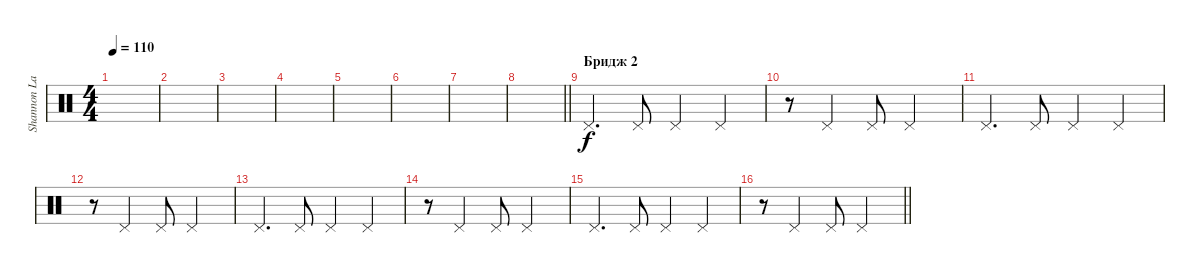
\track ("Shannon Larkin [Percussion 3]" "Shannon La") {instrument percussion}
\staff {score}
\articulation defaults
\ts (4 4)
\tempo 110
\clef neutral
\ks c
|
|
|
|
|
|
|
\barLineRight lightlight
|
\section ("" "Бридж 2")
"Pedal Hi-Hat (hit)".4{d} "Pedal Hi-Hat (hit)".8 "Pedal Hi-Hat (hit)".4 "Pedal Hi-Hat (hit)".4 |
r.8 "Pedal Hi-Hat (hit)".4 "Pedal Hi-Hat (hit)".8 "Pedal Hi-Hat (hit)".2 |
"Pedal Hi-Hat (hit)".4{d} "Pedal Hi-Hat (hit)".8 "Pedal Hi-Hat (hit)".4 "Pedal Hi-Hat (hit)".4 |
r.8 "Pedal Hi-Hat (hit)".4 "Pedal Hi-Hat (hit)".8 "Pedal Hi-Hat (hit)".2 |
"Pedal Hi-Hat (hit)".4{d} "Pedal Hi-Hat (hit)".8 "Pedal Hi-Hat (hit)".4 "Pedal Hi-Hat (hit)".4 |
r.8 "Pedal Hi-Hat (hit)".4 "Pedal Hi-Hat (hit)".8 "Pedal Hi-Hat (hit)".2 |
"Pedal Hi-Hat (hit)".4{d} "Pedal Hi-Hat (hit)".8 "Pedal Hi-Hat (hit)".4 "Pedal Hi-Hat (hit)".4 |
\barLineRight lightlight
r.8 "Pedal Hi-Hat (hit)".4 "Pedal Hi-Hat (hit)".8 "Pedal Hi-Hat (hit)".2
